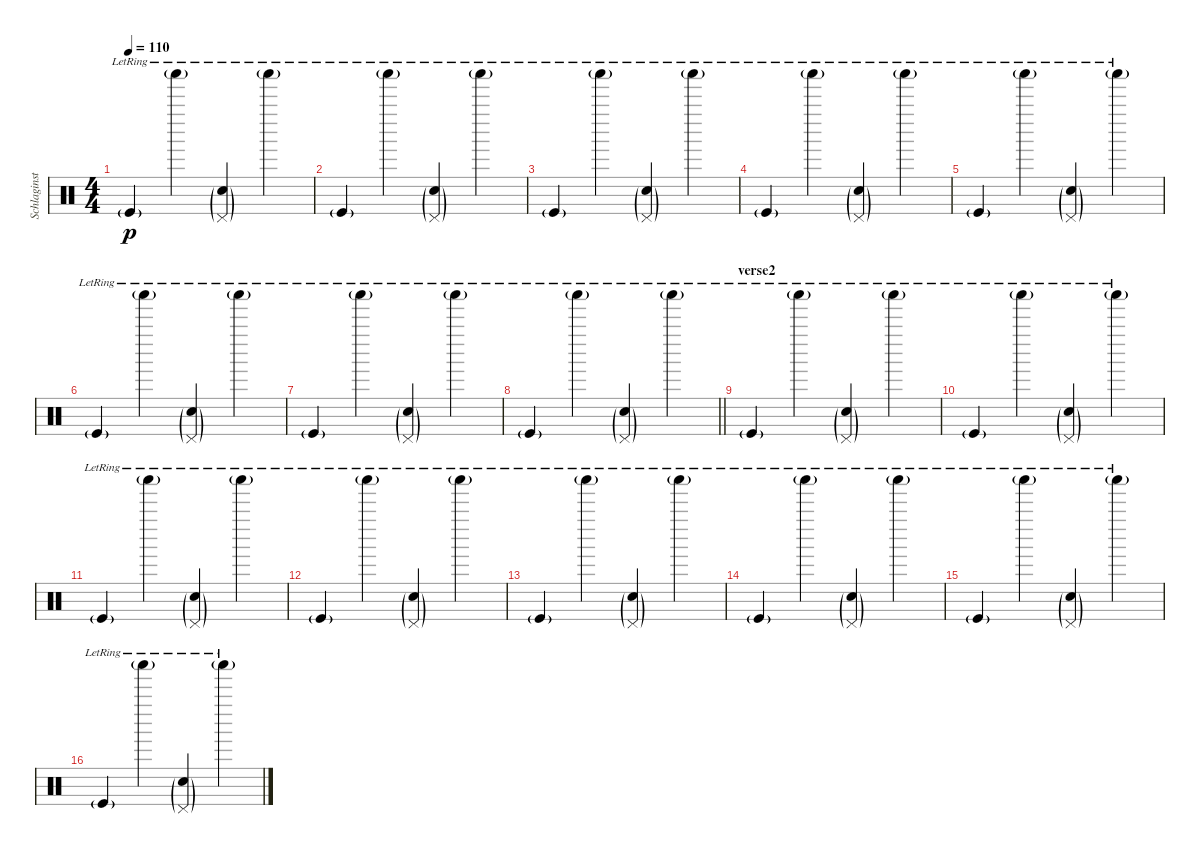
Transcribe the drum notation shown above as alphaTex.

\track ("Schlaginstrumente - Auswahl" "Schlaginst") {instrument percussion}
\staff {score}
\articulation defaults
\ts (4 4)
\tempo 110
\clef neutral
\ks c "Kick (hit)"{g lr}.4{dy p} "Shaker (hit)"{g lr}.4
("Snare (hit) 2"{g lr} "Pedal Hi-Hat (hit)"{g lr}).4 "Shaker (hit)"{g lr}.4 |
"Kick (hit)"{g lr}.4 "Shaker (hit)"{g lr}.4 ("Snare (hit) 2"{g lr} "Pedal Hi-Hat (hit)"{g lr}).4 "Shaker (hit)"{g lr}.4 |
"Kick (hit)"{g lr}.4 "Shaker (hit)"{g lr}.4 ("Snare (hit) 2"{g lr} "Pedal Hi-Hat (hit)"{g lr}).4 "Shaker (hit)"{g lr}.4 |
"Kick (hit)"{g lr}.4 "Shaker (hit)"{g lr}.4 ("Snare (hit) 2"{g lr} "Pedal Hi-Hat (hit)"{g lr}).4 "Shaker (hit)"{g lr}.4 |
"Kick (hit)"{g lr}.4 "Shaker (hit)"{g lr}.4 ("Snare (hit) 2"{g lr} "Pedal Hi-Hat (hit)"{g lr}).4 "Shaker (hit)"{g lr}.4 |
"Kick (hit)"{g lr}.4 "Shaker (hit)"{g lr}.4 ("Snare (hit) 2"{g lr} "Pedal Hi-Hat (hit)"{g lr}).4 "Shaker (hit)"{g lr}.4 |
"Kick (hit)"{g lr}.4 "Shaker (hit)"{g lr}.4 ("Snare (hit) 2"{g lr} "Pedal Hi-Hat (hit)"{g lr}).4 "Shaker (hit)"{g lr}.4 |
\barLineRight lightlight "Kick (hit)"{g lr}.4 "Shaker (hit)"{g lr}.4
("Snare (hit) 2"{g lr} "Pedal Hi-Hat (hit)"{g lr}).4 "Shaker (hit)"{g lr}.4 |
\section ("" "verse2")
"Kick (hit)"{g lr}.4 "Shaker (hit)"{g lr}.4 ("Snare (hit) 2"{g lr} "Pedal Hi-Hat (hit)"{g lr}).4 "Shaker (hit)"{g lr}.4 |
"Kick (hit)"{g lr}.4 "Shaker (hit)"{g lr}.4 ("Snare (hit) 2"{g lr} "Pedal Hi-Hat (hit)"{g lr}).4 "Shaker (hit)"{g lr}.4 |
"Kick (hit)"{g lr}.4 "Shaker (hit)"{g lr}.4 ("Snare (hit) 2"{g lr} "Pedal Hi-Hat (hit)"{g lr}).4 "Shaker (hit)"{g lr}.4 |
"Kick (hit)"{g lr}.4 "Shaker (hit)"{g lr}.4 ("Snare (hit) 2"{g lr} "Pedal Hi-Hat (hit)"{g lr}).4 "Shaker (hit)"{g lr}.4 |
"Kick (hit)"{g lr}.4 "Shaker (hit)"{g lr}.4 ("Snare (hit) 2"{g lr} "Pedal Hi-Hat (hit)"{g lr}).4 "Shaker (hit)"{g lr}.4 |
"Kick (hit)"{g lr}.4 "Shaker (hit)"{g lr}.4 ("Snare (hit) 2"{g lr} "Pedal Hi-Hat (hit)"{g lr}).4 "Shaker (hit)"{g lr}.4 |
"Kick (hit)"{g lr}.4 "Shaker (hit)"{g lr}.4 ("Snare (hit) 2"{g lr} "Pedal Hi-Hat (hit)"{g lr}).4 "Shaker (hit)"{g lr}.4 |
"Kick (hit)"{g lr}.4 "Shaker (hit)"{g lr}.4 ("Snare (hit) 2"{g lr} "Pedal Hi-Hat (hit)"{g lr}).4 "Shaker (hit)"{g lr}.4
